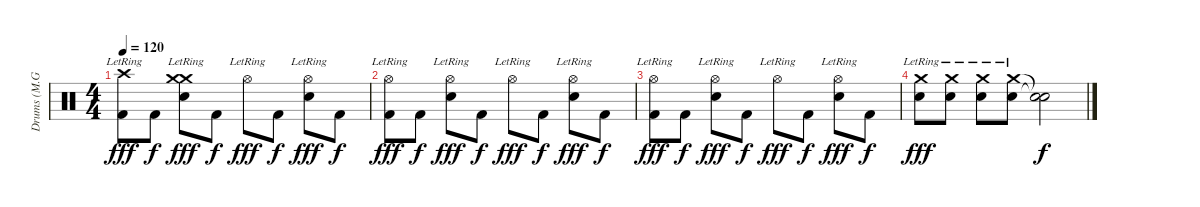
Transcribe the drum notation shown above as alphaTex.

\track ("Drums (M.Grosskopf)" "Drums (M.G") {instrument percussion}
\staff {score}
\articulation defaults
\ts (4 4)
\tempo 120
\clef neutral
\ks c
("Crash high (hit)"{lr} "Kick (hit) 2").8{dy fff} "Kick (hit) 2".8{dy f} ("Crash medium (hit)"{lr} "Crash medium (hit)"{lr} "Electric Snare (hit)").8{dy fff} "Kick (hit) 2".8{dy f} "Hi-Hat (open)"{lr}.8{dy fff} "Kick (hit) 2".8{dy f} ("Hi-Hat (open)"{lr} "Electric Snare (hit)").8{dy fff} "Kick (hit) 2".8{dy f} |
("Hi-Hat (open)"{lr} "Kick (hit) 2").8{dy fff} "Kick (hit) 2".8{dy f} ("Hi-Hat (open)"{lr} "Electric Snare (hit)").8{dy fff} "Kick (hit) 2".8{dy f} "Hi-Hat (open)"{lr}.8{dy fff} "Kick (hit) 2".8{dy f} ("Hi-Hat (open)"{lr} "Electric Snare (hit)").8{dy fff} "Kick (hit) 2".8{dy f} |
("Hi-Hat (open)"{lr} "Kick (hit) 2").8{dy fff} "Kick (hit) 2".8{dy f} ("Hi-Hat (open)"{lr} "Electric Snare (hit)").8{dy fff} "Kick (hit) 2".8{dy f} "Hi-Hat (open)"{lr}.8{dy fff} "Kick (hit) 2".8{dy f} ("Hi-Hat (open)"{lr} "Electric Snare (hit)").8{dy fff} "Kick (hit) 2".8{dy f} |
("Crash medium (hit)"{lr} "Electric Snare (hit)").8{dy fff} ("Crash medium (hit)"{lr} "Electric Snare (hit)").8 ("Crash medium (hit)"{lr} "Electric Snare (hit)").8 ("Crash medium (hit)"{lr} "Electric Snare (hit)").8 ("Snare (hit)"{t} "Snare (hit)"{t}).2{dy f}
